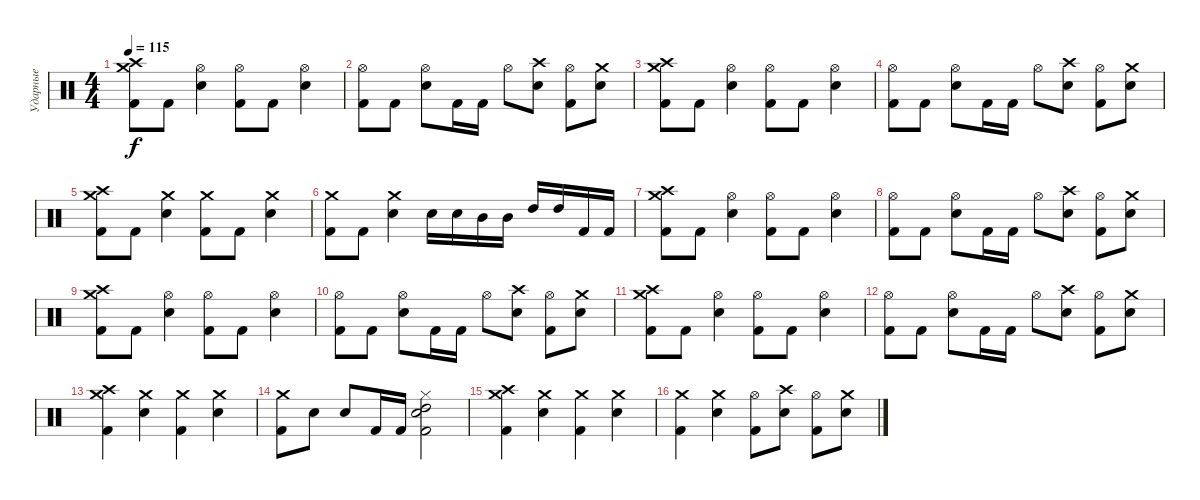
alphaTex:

\track ("Ударные" "Ударные") {instrument percussion}
\staff {score}
\articulation defaults
\ts (4 4)
\tempo 115
\clef neutral
\ks c
("Crash medium (hit)" "Crash high (hit)" "Kick (hit) 2").8{dy f} "Kick (hit) 2".8 ("Snare (hit) 2" "Hi-Hat (open)").4 ("Hi-Hat (open)" "Kick (hit) 2").8 "Kick (hit) 2".8 ("Snare (hit) 2" "Hi-Hat (open)").4 |
("Hi-Hat (open)" "Kick (hit) 2").8 "Kick (hit) 2".8 ("Snare (hit) 2" "Hi-Hat (open)").8 "Kick (hit) 2".16 "Kick (hit) 2".16 "Hi-Hat (open)".8 ("Crash high (hit)" "Snare (hit) 2").8 ("Hi-Hat (open)" "Kick (hit) 2").8 ("Crash medium (hit)" "Snare (hit) 2").8 |
("Crash medium (hit)" "Crash high (hit)" "Kick (hit) 2").8 "Kick (hit) 2".8 ("Snare (hit) 2" "Hi-Hat (open)").4 ("Hi-Hat (open)" "Kick (hit) 2").8 "Kick (hit) 2".8 ("Snare (hit) 2" "Hi-Hat (open)").4 |
("Hi-Hat (open)" "Kick (hit) 2").8 "Kick (hit) 2".8 ("Snare (hit) 2" "Hi-Hat (open)").8 "Kick (hit) 2".16 "Kick (hit) 2".16 "Hi-Hat (open)".8 ("Crash high (hit)" "Snare (hit) 2").8 ("Hi-Hat (open)" "Kick (hit) 2").8 ("Crash medium (hit)" "Snare (hit) 2").8 |
("Crash medium (hit)" "Crash high (hit)" "Kick (hit) 2").8 "Kick (hit) 2".8 ("Snare (hit) 2" "Crash medium (hit)").4 ("Crash medium (hit)" "Kick (hit) 2").8 "Kick (hit) 2".8 ("Snare (hit) 2" "Crash medium (hit)").4 |
("Crash medium (hit)" "Kick (hit) 2").8 "Kick (hit) 2".8 ("Snare (hit) 2" "Crash medium (hit)").4 "Snare (hit) 2".16 "Snare (hit) 2".16 "Mid Tom (hit)".16 "Mid Tom (hit)".16 "High Tom (hit)".16 "High Tom (hit)".16 "Kick (hit) 2".16 "Kick (hit) 2".16 |
("Crash medium (hit)" "Crash high (hit)" "Kick (hit) 2").8 "Kick (hit) 2".8 ("Snare (hit) 2" "Hi-Hat (open)").4 ("Hi-Hat (open)" "Kick (hit) 2").8 "Kick (hit) 2".8 ("Snare (hit) 2" "Hi-Hat (open)").4 |
("Hi-Hat (open)" "Kick (hit) 2").8 "Kick (hit) 2".8 ("Snare (hit) 2" "Hi-Hat (open)").8 "Kick (hit) 2".16 "Kick (hit) 2".16 "Hi-Hat (open)".8 ("Crash high (hit)" "Snare (hit) 2").8 ("Hi-Hat (open)" "Kick (hit) 2").8 ("Crash medium (hit)" "Snare (hit) 2").8 |
("Crash medium (hit)" "Crash high (hit)" "Kick (hit) 2").8 "Kick (hit) 2".8 ("Snare (hit) 2" "Hi-Hat (open)").4 ("Hi-Hat (open)" "Kick (hit) 2").8 "Kick (hit) 2".8 ("Snare (hit) 2" "Hi-Hat (open)").4 |
("Hi-Hat (open)" "Kick (hit) 2").8 "Kick (hit) 2".8 ("Snare (hit) 2" "Hi-Hat (open)").8 "Kick (hit) 2".16 "Kick (hit) 2".16 "Hi-Hat (open)".8 ("Crash high (hit)" "Snare (hit) 2").8 ("Hi-Hat (open)" "Kick (hit) 2").8 ("Crash medium (hit)" "Snare (hit) 2").8 |
("Crash medium (hit)" "Crash high (hit)" "Kick (hit) 2").8 "Kick (hit) 2".8 ("Snare (hit) 2" "Hi-Hat (open)").4 ("Hi-Hat (open)" "Kick (hit) 2").8 "Kick (hit) 2".8 ("Snare (hit) 2" "Hi-Hat (open)").4 |
("Hi-Hat (open)" "Kick (hit) 2").8 "Kick (hit) 2".8 ("Snare (hit) 2" "Hi-Hat (open)").8 "Kick (hit) 2".16 "Kick (hit) 2".16 "Hi-Hat (open)".8 ("Crash high (hit)" "Snare (hit) 2").8 ("Hi-Hat (open)" "Kick (hit) 2").8 ("Crash medium (hit)" "Snare (hit) 2").8 |
("Crash medium (hit)" "Crash high (hit)" "Kick (hit) 2").4 ("Snare (hit) 2" "Crash medium (hit)").4 ("Crash medium (hit)" "Kick (hit) 2").4 ("Snare (hit) 2" "Crash medium (hit)").4 |
("Crash medium (hit)" "Kick (hit) 2").8 "Snare (hit) 2".8 "Snare (hit) 2".8 "Kick (hit) 2".16 "Kick (hit) 2".16 ("High Tom (hit)" "Snare (hit) 2" "Hi-Hat (closed)" "Kick (hit) 2").2 |
("Crash medium (hit)" "Crash high (hit)" "Kick (hit) 2").4 ("Snare (hit) 2" "Crash medium (hit)").4 ("Crash medium (hit)" "Kick (hit) 2").4 ("Snare (hit) 2" "Crash medium (hit)").4 |
("Crash medium (hit)" "Kick (hit) 2").4 ("Snare (hit) 2" "Crash medium (hit)").4 ("Hi-Hat (open)" "Kick (hit) 2").8 ("Crash high (hit)" "Snare (hit) 2").8 ("Hi-Hat (open)" "Kick (hit) 2").8 ("Crash medium (hit)" "Snare (hit) 2").8
